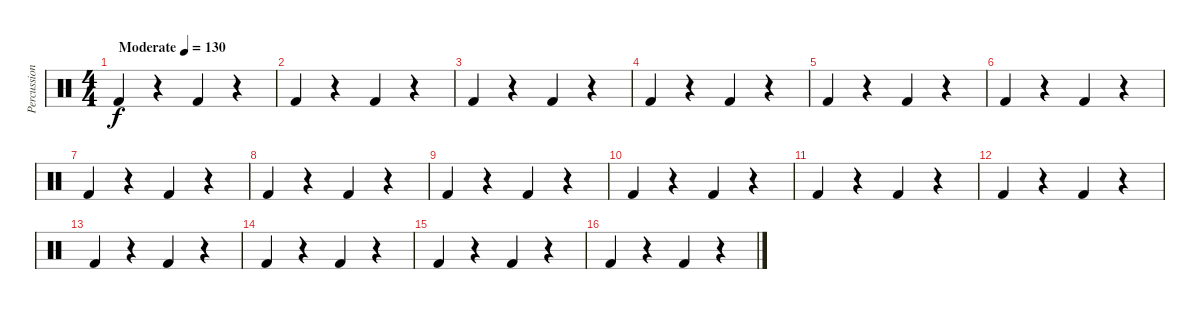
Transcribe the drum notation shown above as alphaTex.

\track ("Percussion" "Percussion") {instrument percussion}
\staff {score}
\articulation defaults
\ts (4 4)
\tempo (130 "Moderate")
\clef neutral
\ks c "Kick (hit) 2".4{dy f}
r.4 "Kick (hit) 2".4 r.4 |
"Kick (hit) 2".4 r.4 "Kick (hit) 2".4 r.4 |
"Kick (hit) 2".4 r.4 "Kick (hit) 2".4 r.4 |
"Kick (hit) 2".4 r.4 "Kick (hit) 2".4 r.4 |
"Kick (hit) 2".4 r.4 "Kick (hit) 2".4 r.4 |
"Kick (hit) 2".4 r.4 "Kick (hit) 2".4 r.4 |
"Kick (hit) 2".4 r.4 "Kick (hit) 2".4 r.4 |
"Kick (hit) 2".4 r.4 "Kick (hit) 2".4 r.4 |
"Kick (hit) 2".4 r.4 "Kick (hit) 2".4 r.4 |
"Kick (hit) 2".4 r.4 "Kick (hit) 2".4 r.4 |
"Kick (hit) 2".4 r.4 "Kick (hit) 2".4 r.4 |
"Kick (hit) 2".4 r.4 "Kick (hit) 2".4 r.4 |
"Kick (hit) 2".4 r.4 "Kick (hit) 2".4 r.4 |
"Kick (hit) 2".4 r.4 "Kick (hit) 2".4 r.4 |
"Kick (hit) 2".4 r.4 "Kick (hit) 2".4 r.4 |
"Kick (hit) 2".4 r.4 "Kick (hit) 2".4 r.4
